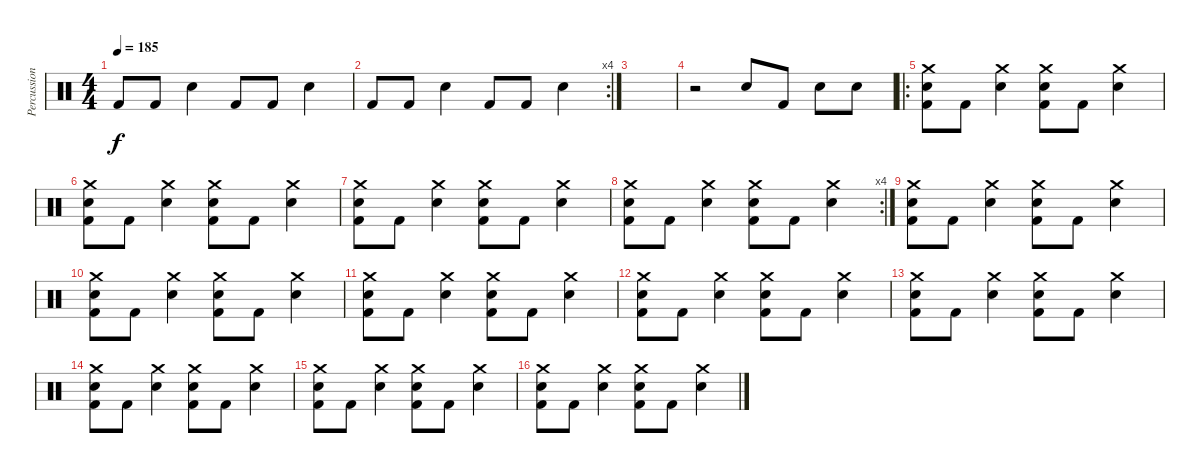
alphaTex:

\track ("Percussion" "Percussion") {instrument percussion}
\staff {score}
\articulation defaults
\ts (4 4)
\tempo 185
\clef neutral
\ks c "Kick (hit) 2".8{dy f} "Kick (hit) 2".8 "Snare (hit) 2".4 "Kick (hit) 2".8 "Kick (hit) 2".8 "Snare (hit) 2".4
|
\rc 4 "Kick (hit) 2".8 "Kick (hit) 2".8 "Snare (hit) 2".4 "Kick (hit) 2".8 "Kick (hit) 2".8 "Snare (hit) 2".4
|
|
r.2 "Snare (hit) 2".8 "Kick (hit) 2".8 "Snare (hit) 2".8 "Snare (hit) 2".8 |
\ro
("Crash medium (hit)" "Snare (hit) 2" "Kick (hit) 2").8 "Kick (hit) 2".8 ("Crash medium (hit)" "Snare (hit) 2").4 ("Crash medium (hit)" "Snare (hit) 2" "Kick (hit) 2").8 "Kick (hit) 2".8 ("Crash medium (hit)" "Snare (hit) 2").4 |
("Crash medium (hit)" "Snare (hit) 2" "Kick (hit) 2").8 "Kick (hit) 2".8 ("Crash medium (hit)" "Snare (hit) 2").4 ("Crash medium (hit)" "Snare (hit) 2" "Kick (hit) 2").8 "Kick (hit) 2".8 ("Crash medium (hit)" "Snare (hit) 2").4 |
("Crash medium (hit)" "Snare (hit) 2" "Kick (hit) 2").8 "Kick (hit) 2".8 ("Crash medium (hit)" "Snare (hit) 2").4 ("Crash medium (hit)" "Snare (hit) 2" "Kick (hit) 2").8 "Kick (hit) 2".8 ("Crash medium (hit)" "Snare (hit) 2").4 |
\rc 4
("Crash medium (hit)" "Snare (hit) 2" "Kick (hit) 2").8 "Kick (hit) 2".8 ("Crash medium (hit)" "Snare (hit) 2").4 ("Crash medium (hit)" "Snare (hit) 2" "Kick (hit) 2").8 "Kick (hit) 2".8 ("Crash medium (hit)" "Snare (hit) 2").4 |
("Crash medium (hit)" "Snare (hit) 2" "Kick (hit) 2").8 "Kick (hit) 2".8 ("Crash medium (hit)" "Snare (hit) 2").4 ("Crash medium (hit)" "Snare (hit) 2" "Kick (hit) 2").8 "Kick (hit) 2".8 ("Crash medium (hit)" "Snare (hit) 2").4 |
("Crash medium (hit)" "Snare (hit) 2" "Kick (hit) 2").8 "Kick (hit) 2".8 ("Crash medium (hit)" "Snare (hit) 2").4 ("Crash medium (hit)" "Snare (hit) 2" "Kick (hit) 2").8 "Kick (hit) 2".8 ("Crash medium (hit)" "Snare (hit) 2").4 |
("Crash medium (hit)" "Snare (hit) 2" "Kick (hit) 2").8 "Kick (hit) 2".8 ("Crash medium (hit)" "Snare (hit) 2").4 ("Crash medium (hit)" "Snare (hit) 2" "Kick (hit) 2").8 "Kick (hit) 2".8 ("Crash medium (hit)" "Snare (hit) 2").4 |
("Crash medium (hit)" "Snare (hit) 2" "Kick (hit) 2").8 "Kick (hit) 2".8 ("Crash medium (hit)" "Snare (hit) 2").4 ("Crash medium (hit)" "Snare (hit) 2" "Kick (hit) 2").8 "Kick (hit) 2".8 ("Crash medium (hit)" "Snare (hit) 2").4 |
("Crash medium (hit)" "Snare (hit) 2" "Kick (hit) 2").8 "Kick (hit) 2".8 ("Crash medium (hit)" "Snare (hit) 2").4 ("Crash medium (hit)" "Snare (hit) 2" "Kick (hit) 2").8 "Kick (hit) 2".8 ("Crash medium (hit)" "Snare (hit) 2").4 |
("Crash medium (hit)" "Snare (hit) 2" "Kick (hit) 2").8 "Kick (hit) 2".8 ("Crash medium (hit)" "Snare (hit) 2").4 ("Crash medium (hit)" "Snare (hit) 2" "Kick (hit) 2").8 "Kick (hit) 2".8 ("Crash medium (hit)" "Snare (hit) 2").4 |
("Crash medium (hit)" "Snare (hit) 2" "Kick (hit) 2").8 "Kick (hit) 2".8 ("Crash medium (hit)" "Snare (hit) 2").4 ("Crash medium (hit)" "Snare (hit) 2" "Kick (hit) 2").8 "Kick (hit) 2".8 ("Crash medium (hit)" "Snare (hit) 2").4 |
("Crash medium (hit)" "Snare (hit) 2" "Kick (hit) 2").8 "Kick (hit) 2".8 ("Crash medium (hit)" "Snare (hit) 2").4 ("Crash medium (hit)" "Snare (hit) 2" "Kick (hit) 2").8 "Kick (hit) 2".8 ("Crash medium (hit)" "Snare (hit) 2").4
